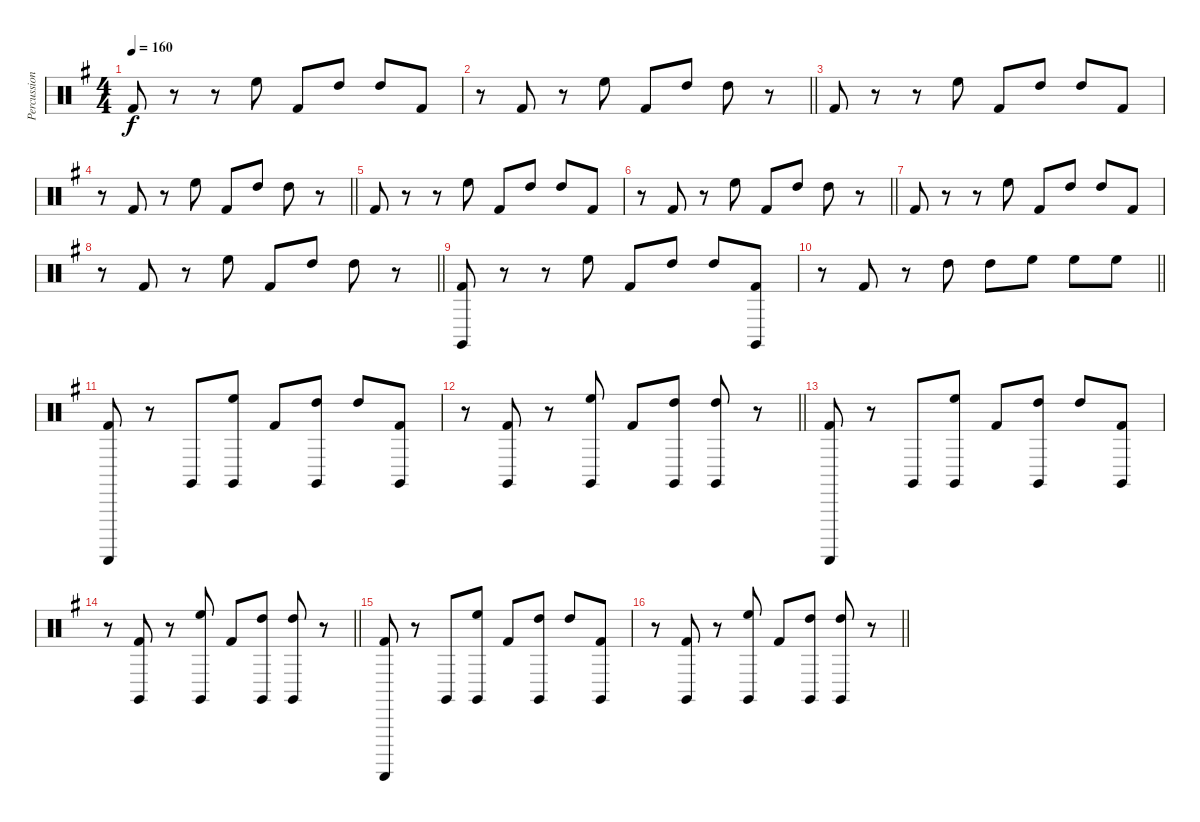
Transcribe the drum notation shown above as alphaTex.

\track ("Percussion" "Percussion") {instrument percussion}
\staff {score}
\articulation defaults
\ts (4 4)
\tempo 160
\clef neutral
\ks g "Kick (hit) 2".8{dy f}
r.8 r.8 "High Floor Tom (hit)".8 "Kick (hit) 2".8 "High Tom (hit)".8 "High Tom (hit)".8 "Kick (hit) 2".8 |
\barLineRight lightlight
r.8 "Kick (hit) 2".8 r.8 "High Floor Tom (hit)".8 "Kick (hit) 2".8 "High Tom (hit)".8 "High Tom (hit)".8 r.8 |
"Kick (hit) 2".8 r.8 r.8 "High Floor Tom (hit)".8 "Kick (hit) 2".8 "High Tom (hit)".8 "High Tom (hit)".8 "Kick (hit) 2".8 |
\barLineRight lightlight
r.8 "Kick (hit) 2".8 r.8 "High Floor Tom (hit)".8 "Kick (hit) 2".8 "High Tom (hit)".8 "High Tom (hit)".8 r.8 |
"Kick (hit) 2".8 r.8 r.8 "High Floor Tom (hit)".8 "Kick (hit) 2".8 "High Tom (hit)".8 "High Tom (hit)".8 "Kick (hit) 2".8 |
\barLineRight lightlight
r.8 "Kick (hit) 2".8 r.8 "High Floor Tom (hit)".8 "Kick (hit) 2".8 "High Tom (hit)".8 "High Tom (hit)".8 r.8 |
"Kick (hit) 2".8 r.8 r.8 "High Floor Tom (hit)".8 "Kick (hit) 2".8 "High Tom (hit)".8 "High Tom (hit)".8 "Kick (hit) 2".8 |
\barLineRight lightlight
r.8 "Kick (hit) 2".8 r.8 "High Floor Tom (hit)".8 "Kick (hit) 2".8 "High Tom (hit)".8 "High Tom (hit)".8 r.8 |
("Claves (hit)" "Kick (hit) 2").8 r.8 r.8 "High Floor Tom (hit)".8 "Kick (hit) 2".8 "High Tom (hit)".8 "High Tom (hit)".8 ("Claves (hit)" "Kick (hit) 2").8 |
\barLineRight lightlight
r.8 "Kick (hit) 2".8 r.8 "High Tom (hit)".8 "High Tom (hit)".8 "High Floor Tom (hit)".8 "High Floor Tom (hit)".8 "High Floor Tom (hit)".8 |
("Guiro (scrap-return)" "Kick (hit) 2").8 r.8 "Claves (hit)".8 ("High Floor Tom (hit)" "Claves (hit)").8 "Kick (hit) 2".8 ("High Tom (hit)" "Claves (hit)").8 "High Tom (hit)".8 ("Claves (hit)" "Kick (hit) 2").8 |
\barLineRight lightlight
r.8 ("Claves (hit)" "Kick (hit) 2").8 r.8 ("High Floor Tom (hit)" "Claves (hit)").8 "Kick (hit) 2".8 ("High Tom (hit)" "Claves (hit)").8 ("High Tom (hit)" "Claves (hit)").8 r.8 |
("Guiro (scrap-return)" "Kick (hit) 2").8 r.8 "Claves (hit)".8 ("High Floor Tom (hit)" "Claves (hit)").8 "Kick (hit) 2".8 ("High Tom (hit)" "Claves (hit)").8 "High Tom (hit)".8 ("Claves (hit)" "Kick (hit) 2").8 |
\barLineRight lightlight
r.8 ("Claves (hit)" "Kick (hit) 2").8 r.8 ("High Floor Tom (hit)" "Claves (hit)").8 "Kick (hit) 2".8 ("High Tom (hit)" "Claves (hit)").8 ("High Tom (hit)" "Claves (hit)").8 r.8 |
("Guiro (scrap-return)" "Kick (hit) 2").8 r.8 "Claves (hit)".8 ("High Floor Tom (hit)" "Claves (hit)").8 "Kick (hit) 2".8 ("High Tom (hit)" "Claves (hit)").8 "High Tom (hit)".8 ("Claves (hit)" "Kick (hit) 2").8 |
\barLineRight lightlight
r.8 ("Claves (hit)" "Kick (hit) 2").8 r.8 ("High Floor Tom (hit)" "Claves (hit)").8 "Kick (hit) 2".8 ("High Tom (hit)" "Claves (hit)").8 ("High Tom (hit)" "Claves (hit)").8 r.8
